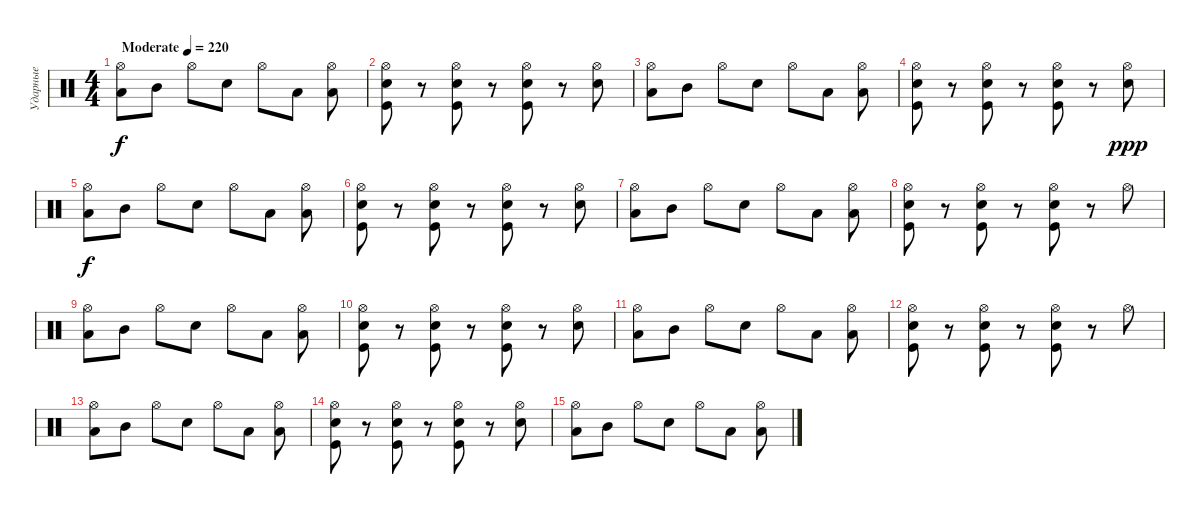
\track ("Ударные" "Ударные") {instrument percussion}
\staff {score}
\articulation defaults
\ts (4 4)
\tempo (220 "Moderate")
\clef neutral
\ks c
("Hi-Hat (open)" "Low Tom (hit)").8{dy f} "Mid Tom (hit)".8 "Hi-Hat (open)".8 "Electric Snare (hit)".8 "Hi-Hat (open)".8 "Low Floor Tom (hit)".8 ("Hi-Hat (open)" "Low Tom (hit)").8 |
("Hi-Hat (open)" "Electric Snare (hit)" "Kick (hit)").8 r.8 ("Hi-Hat (open)" "Electric Snare (hit)" "Kick (hit)").8 r.8 ("Hi-Hat (open)" "Electric Snare (hit)" "Kick (hit)").8 r.8 ("Hi-Hat (open)" "Electric Snare (hit)").8 |
("Hi-Hat (open)" "Low Tom (hit)").8 "Mid Tom (hit)".8 "Hi-Hat (open)".8 "Electric Snare (hit)".8 "Hi-Hat (open)".8 "Low Floor Tom (hit)".8 ("Hi-Hat (open)" "Low Tom (hit)").8 |
("Hi-Hat (open)" "Electric Snare (hit)" "Kick (hit)").8 r.8 ("Hi-Hat (open)" "Electric Snare (hit)" "Kick (hit)").8 r.8 ("Hi-Hat (open)" "Electric Snare (hit)" "Kick (hit)").8 r.8 ("Hi-Hat (open)" "Electric Snare (hit)").8{dy ppp} |
("Hi-Hat (open)" "Low Tom (hit)").8{dy f} "Mid Tom (hit)".8 "Hi-Hat (open)".8 "Electric Snare (hit)".8 "Hi-Hat (open)".8 "Low Floor Tom (hit)".8 ("Hi-Hat (open)" "Low Tom (hit)").8 |
("Hi-Hat (open)" "Electric Snare (hit)" "Kick (hit)").8 r.8 ("Hi-Hat (open)" "Electric Snare (hit)" "Kick (hit)").8 r.8 ("Hi-Hat (open)" "Electric Snare (hit)" "Kick (hit)").8 r.8 ("Hi-Hat (open)" "Electric Snare (hit)").8 |
("Hi-Hat (open)" "Low Tom (hit)").8 "Mid Tom (hit)".8 "Hi-Hat (open)".8 "Electric Snare (hit)".8 "Hi-Hat (open)".8 "Low Floor Tom (hit)".8 ("Hi-Hat (open)" "Low Tom (hit)").8 |
("Hi-Hat (open)" "Electric Snare (hit)" "Kick (hit)").8 r.8 ("Hi-Hat (open)" "Electric Snare (hit)" "Kick (hit)").8 r.8 ("Hi-Hat (open)" "Electric Snare (hit)" "Kick (hit)").8 r.8 "Hi-Hat (open)".8 |
("Hi-Hat (open)" "Low Tom (hit)").8 "Mid Tom (hit)".8 "Hi-Hat (open)".8 "Electric Snare (hit)".8 "Hi-Hat (open)".8 "Low Floor Tom (hit)".8 ("Hi-Hat (open)" "Low Tom (hit)").8 |
("Hi-Hat (open)" "Electric Snare (hit)" "Kick (hit)").8 r.8 ("Hi-Hat (open)" "Electric Snare (hit)" "Kick (hit)").8 r.8 ("Hi-Hat (open)" "Electric Snare (hit)" "Kick (hit)").8 r.8 ("Hi-Hat (open)" "Electric Snare (hit)").8 |
("Hi-Hat (open)" "Low Tom (hit)").8 "Mid Tom (hit)".8 "Hi-Hat (open)".8 "Electric Snare (hit)".8 "Hi-Hat (open)".8 "Low Floor Tom (hit)".8 ("Hi-Hat (open)" "Low Tom (hit)").8 |
("Hi-Hat (open)" "Electric Snare (hit)" "Kick (hit)").8 r.8 ("Hi-Hat (open)" "Electric Snare (hit)" "Kick (hit)").8 r.8 ("Hi-Hat (open)" "Electric Snare (hit)" "Kick (hit)").8 r.8 "Hi-Hat (open)".8 |
("Hi-Hat (open)" "Low Tom (hit)").8 "Mid Tom (hit)".8 "Hi-Hat (open)".8 "Electric Snare (hit)".8 "Hi-Hat (open)".8 "Low Floor Tom (hit)".8 ("Hi-Hat (open)" "Low Tom (hit)").8 |
("Hi-Hat (open)" "Electric Snare (hit)" "Kick (hit)").8 r.8 ("Hi-Hat (open)" "Electric Snare (hit)" "Kick (hit)").8 r.8 ("Hi-Hat (open)" "Electric Snare (hit)" "Kick (hit)").8 r.8 ("Hi-Hat (open)" "Electric Snare (hit)").8 |
("Hi-Hat (open)" "Low Tom (hit)").8 "Mid Tom (hit)".8 "Hi-Hat (open)".8 "Electric Snare (hit)".8 "Hi-Hat (open)".8 "Low Floor Tom (hit)".8 ("Hi-Hat (open)" "Low Tom (hit)").8
